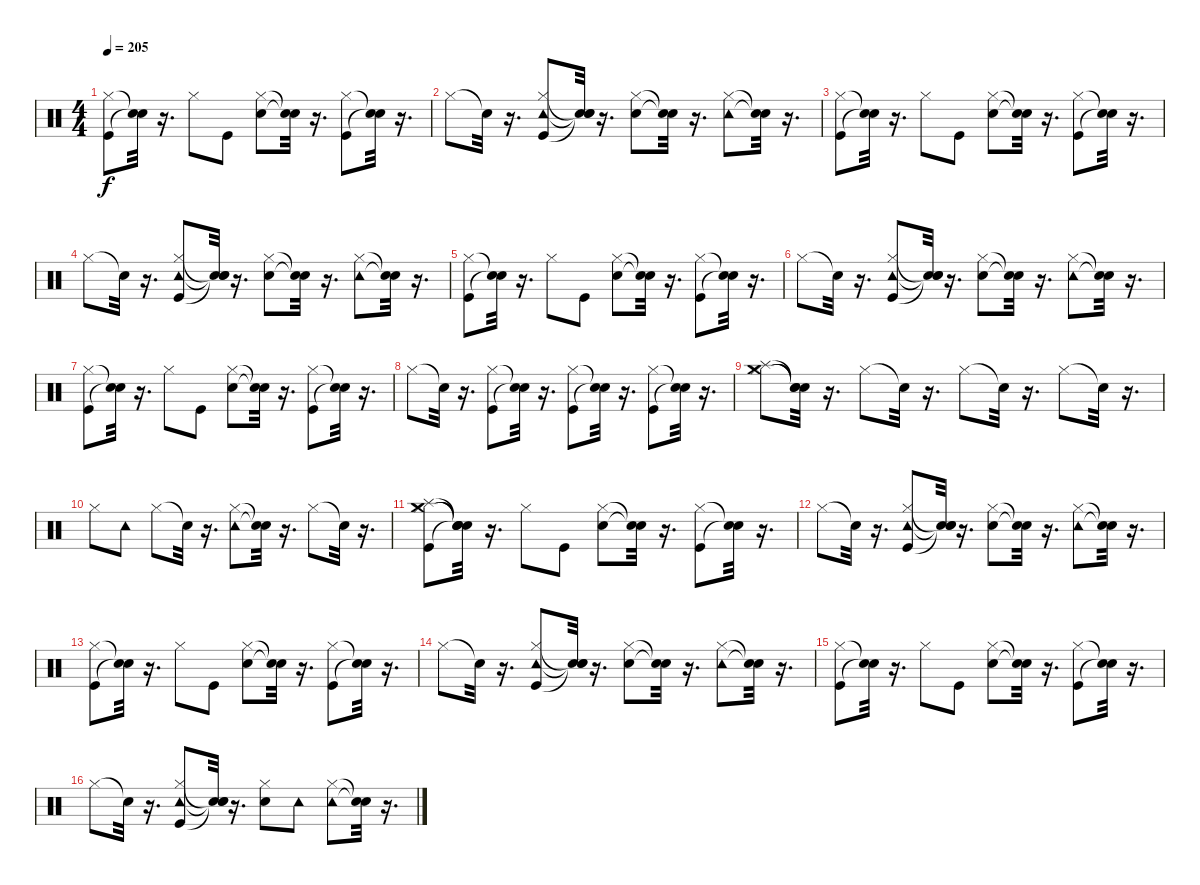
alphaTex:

\track "" {instrument percussion}
\staff {score}
\articulation defaults
\ts (4 4)
\tempo 205
\clef neutral
\ks c
("Kick (hit)" "Hi-Hat (closed)").8{dy f} ("Snare (hit)"{t} "Snare (hit)"{t}).32 r.16{d} "Hi-Hat (closed)".8 "Kick (hit)".8 ("Hi-Hat (closed)" "Electric Snare (hit)").8 ("Snare (hit)"{t} "Snare (hit)"{t}).32 r.16{d} ("Hi-Hat (closed)" "Kick (hit)").8 ("Snare (hit)"{t} "Snare (hit)"{t}).32 r.16{d} |
"Hi-Hat (closed)".8 "Snare (hit)"{t}.32 r.16{d} ("Hi-Hat (closed)" "Kick (hit)" "Tambourine (hit)").8 ("Snare (hit)"{t} "Snare (hit)"{t} "Snare (hit)"{t}).32 r.16{d} ("Hi-Hat (closed)" "Electric Snare (hit)").8 ("Snare (hit)"{t} "Snare (hit)"{t}).32 r.16{d} ("Hi-Hat (closed)" "Tambourine (hit)").8 ("Snare (hit)"{t} "Snare (hit)"{t}).32 r.16{d} |
("Kick (hit)" "Hi-Hat (closed)").8 ("Snare (hit)"{t} "Snare (hit)"{t}).32 r.16{d} "Hi-Hat (closed)".8 "Kick (hit)".8 ("Hi-Hat (closed)" "Electric Snare (hit)").8 ("Snare (hit)"{t} "Snare (hit)"{t}).32 r.16{d} ("Hi-Hat (closed)" "Kick (hit)").8 ("Snare (hit)"{t} "Snare (hit)"{t}).32 r.16{d} |
"Hi-Hat (closed)".8 "Snare (hit)"{t}.32 r.16{d} ("Hi-Hat (closed)" "Kick (hit)" "Tambourine (hit)").8 ("Snare (hit)"{t} "Snare (hit)"{t} "Snare (hit)"{t}).32 r.16{d} ("Hi-Hat (closed)" "Electric Snare (hit)").8 ("Snare (hit)"{t} "Snare (hit)"{t}).32 r.16{d} ("Hi-Hat (closed)" "Tambourine (hit)").8 ("Snare (hit)"{t} "Snare (hit)"{t}).32 r.16{d} |
("Kick (hit)" "Hi-Hat (closed)").8 ("Snare (hit)"{t} "Snare (hit)"{t}).32 r.16{d} "Hi-Hat (closed)".8 "Kick (hit)".8 ("Hi-Hat (closed)" "Electric Snare (hit)").8 ("Snare (hit)"{t} "Snare (hit)"{t}).32 r.16{d} ("Hi-Hat (closed)" "Kick (hit)").8 ("Snare (hit)"{t} "Snare (hit)"{t}).32 r.16{d} |
"Hi-Hat (closed)".8 "Snare (hit)"{t}.32 r.16{d} ("Hi-Hat (closed)" "Kick (hit)" "Tambourine (hit)").8 ("Snare (hit)"{t} "Snare (hit)"{t} "Snare (hit)"{t}).32 r.16{d} ("Hi-Hat (closed)" "Electric Snare (hit)").8 ("Snare (hit)"{t} "Snare (hit)"{t}).32 r.16{d} ("Hi-Hat (closed)" "Tambourine (hit)").8 ("Snare (hit)"{t} "Snare (hit)"{t}).32 r.16{d} |
("Kick (hit)" "Hi-Hat (closed)").8 ("Snare (hit)"{t} "Snare (hit)"{t}).32 r.16{d} "Hi-Hat (closed)".8 "Kick (hit)".8 ("Hi-Hat (closed)" "Electric Snare (hit)").8 ("Snare (hit)"{t} "Snare (hit)"{t}).32 r.16{d} ("Hi-Hat (closed)" "Kick (hit)").8 ("Snare (hit)"{t} "Snare (hit)"{t}).32 r.16{d} |
"Hi-Hat (closed)".8 "Snare (hit)"{t}.32 r.16{d} ("Hi-Hat (closed)" "Kick (hit)").8 ("Snare (hit)"{t} "Snare (hit)"{t}).32 r.16{d} ("Hi-Hat (closed)" "Kick (hit)").8 ("Snare (hit)"{t} "Snare (hit)"{t}).32 r.16{d} ("Hi-Hat (closed)" "Kick (hit)").8 ("Snare (hit)"{t} "Snare (hit)"{t}).32 r.16{d} |
("Hi-Hat (closed)" "Splash (hit)" "Crash medium (hit)").8 ("Snare (hit)"{t} "Snare (hit)"{t} "Snare (hit)"{t}).32 r.16{d} "Hi-Hat (closed)".8 "Snare (hit)"{t}.32 r.16{d} "Hi-Hat (closed)".8 "Snare (hit)"{t}.32 r.16{d} "Hi-Hat (closed)".8 "Snare (hit)"{t}.32 r.16{d} |
"Hi-Hat (closed)".8 "Tambourine (hit)".8 "Hi-Hat (closed)".8 "Snare (hit)"{t}.32 r.16{d} ("Hi-Hat (closed)" "Tambourine (hit)").8 ("Snare (hit)"{t} "Snare (hit)"{t}).32 r.16{d} "Hi-Hat (closed)".8 "Snare (hit)"{t}.32 r.16{d} |
("Kick (hit)" "Hi-Hat (closed)" "Splash (hit)" "Crash medium (hit)").8 ("Snare (hit)"{t} "Snare (hit)"{t} "Snare (hit)"{t} "Snare (hit)"{t}).32 r.16{d} "Hi-Hat (closed)".8 "Kick (hit)".8 ("Hi-Hat (closed)" "Electric Snare (hit)").8 ("Snare (hit)"{t} "Snare (hit)"{t}).32 r.16{d} ("Hi-Hat (closed)" "Kick (hit)").8 ("Snare (hit)"{t} "Snare (hit)"{t}).32 r.16{d} |
"Hi-Hat (closed)".8 "Snare (hit)"{t}.32 r.16{d} ("Hi-Hat (closed)" "Kick (hit)" "Tambourine (hit)").8 ("Snare (hit)"{t} "Snare (hit)"{t} "Snare (hit)"{t}).32 r.16{d} ("Hi-Hat (closed)" "Electric Snare (hit)").8 ("Snare (hit)"{t} "Snare (hit)"{t}).32 r.16{d} ("Hi-Hat (closed)" "Tambourine (hit)").8 ("Snare (hit)"{t} "Snare (hit)"{t}).32 r.16{d} |
("Kick (hit)" "Hi-Hat (closed)").8 ("Snare (hit)"{t} "Snare (hit)"{t}).32 r.16{d} "Hi-Hat (closed)".8 "Kick (hit)".8 ("Hi-Hat (closed)" "Electric Snare (hit)").8 ("Snare (hit)"{t} "Snare (hit)"{t}).32 r.16{d} ("Hi-Hat (closed)" "Kick (hit)").8 ("Snare (hit)"{t} "Snare (hit)"{t}).32 r.16{d} |
"Hi-Hat (closed)".8 "Snare (hit)"{t}.32 r.16{d} ("Hi-Hat (closed)" "Kick (hit)" "Tambourine (hit)").8 ("Snare (hit)"{t} "Snare (hit)"{t} "Snare (hit)"{t}).32 r.16{d} ("Hi-Hat (closed)" "Electric Snare (hit)").8 ("Snare (hit)"{t} "Snare (hit)"{t}).32 r.16{d} ("Hi-Hat (closed)" "Tambourine (hit)").8 ("Snare (hit)"{t} "Snare (hit)"{t}).32 r.16{d} |
("Kick (hit)" "Hi-Hat (closed)").8 ("Snare (hit)"{t} "Snare (hit)"{t}).32 r.16{d} "Hi-Hat (closed)".8 "Kick (hit)".8 ("Hi-Hat (closed)" "Electric Snare (hit)").8 ("Snare (hit)"{t} "Snare (hit)"{t}).32 r.16{d} ("Hi-Hat (closed)" "Kick (hit)").8 ("Snare (hit)"{t} "Snare (hit)"{t}).32 r.16{d} |
"Hi-Hat (closed)".8 "Snare (hit)"{t}.32 r.16{d} ("Hi-Hat (closed)" "Kick (hit)" "Tambourine (hit)").8 ("Snare (hit)"{t} "Snare (hit)"{t} "Snare (hit)"{t}).32 r.16{d} ("Hi-Hat (closed)" "Electric Snare (hit)").8 "Tambourine (hit)".8 ("Hi-Hat (closed)" "Tambourine (hit)").8 ("Snare (hit)"{t} "Snare (hit)"{t}).32 r.16{d}
